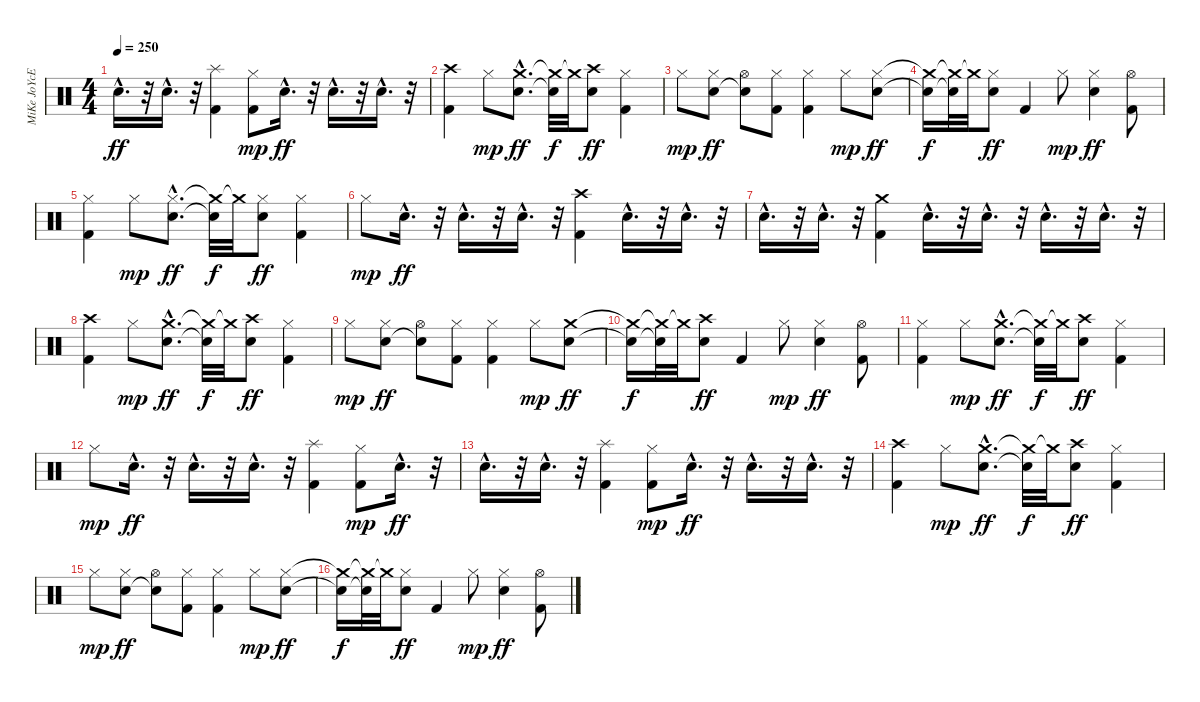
\track ("MiKe JoYcE" "MiKe JoYcE") {instrument percussion}
\staff {score}
\articulation defaults
\ts (4 4)
\tempo 250
\clef neutral
\ks c "Electric Snare (hit)"{hac}.16{d dy ff}
r.32 "Electric Snare (hit)"{hac}.16{d} r.32 ("Splash (hit)" "Kick (hit) 2").4 ("Hi-Hat (closed)" "Kick (hit) 2").8{dy mp} "Electric Snare (hit)"{hac}.16{d dy ff} r.32 "Electric Snare (hit)"{hac}.16{d} r.32 "Electric Snare (hit)"{hac}.16{d} r.32 |
("Crash high (hit)" "Kick (hit) 2").4 "Hi-Hat (closed)".8{dy mp} ("Crash medium (hit)"{hac} "Electric Snare (hit)"{hac}).8{d dy ff} ("Crash medium (hit)"{t} "Electric Snare (hit)"{t}).32{dy f} "Crash medium (hit)"{t}.32 ("Crash high (hit)" "Electric Snare (hit)").8{dy ff} ("Hi-Hat (closed)" "Kick (hit) 2").4 |
"Hi-Hat (closed)".8{dy mp} ("Hi-Hat (closed)" "Electric Snare (hit)").8{dy ff} ("Hi-Hat (open)" "Electric Snare (hit)"{t}).8 ("Hi-Hat (closed)" "Kick (hit) 2").8 ("Hi-Hat (closed)" "Kick (hit) 2").4 "Hi-Hat (closed)".8{dy mp} ("Hi-Hat (closed)" "Electric Snare (hit)").8{dy ff} |
("Crash medium (hit)"{t} "Electric Snare (hit)"{t}).16{dy f} ("Crash medium (hit)"{t} "Electric Snare (hit)"{t}).32 "Crash medium (hit)"{t}.32 ("Hi-Hat (closed)" "Electric Snare (hit)").8{dy ff} "Kick (hit) 2".4 "Hi-Hat (closed)".8{dy mp} ("Hi-Hat (closed)" "Electric Snare (hit)").4{dy ff} ("Hi-Hat (open)" "Kick (hit) 2").8 |
("Hi-Hat (closed)" "Kick (hit) 2").4 "Hi-Hat (closed)".8{dy mp} ("Hi-Hat (closed)"{hac} "Electric Snare (hit)"{hac}).8{d dy ff} ("Crash medium (hit)"{t} "Electric Snare (hit)"{t}).32{dy f} "Crash medium (hit)"{t}.32 ("Hi-Hat (closed)" "Electric Snare (hit)").8{dy ff} ("Hi-Hat (closed)" "Kick (hit) 2").4 |
"Hi-Hat (closed)".8{dy mp} "Electric Snare (hit)"{hac}.16{d dy ff} r.32 "Electric Snare (hit)"{hac}.16{d} r.32 "Electric Snare (hit)"{hac}.16{d} r.32 ("Crash high (hit)" "Kick (hit) 2").4 "Electric Snare (hit)"{hac}.16{d} r.32 "Electric Snare (hit)"{hac}.16{d} r.32 |
"Electric Snare (hit)"{hac}.16{d} r.32 "Electric Snare (hit)"{hac}.16{d} r.32 ("Crash medium (hit)" "Kick (hit) 2").4 "Electric Snare (hit)"{hac}.16{d} r.32 "Electric Snare (hit)"{hac}.16{d} r.32 "Electric Snare (hit)"{hac}.16{d} r.32 "Electric Snare (hit)"{hac}.16{d} r.32 |
("Crash high (hit)" "Kick (hit) 2").4 "Hi-Hat (closed)".8{dy mp} ("Crash medium (hit)"{hac} "Electric Snare (hit)"{hac}).8{d dy ff} ("Crash medium (hit)"{t} "Electric Snare (hit)"{t}).32{dy f} "Crash medium (hit)"{t}.32 ("Crash high (hit)" "Electric Snare (hit)").8{dy ff} ("Hi-Hat (closed)" "Kick (hit) 2").4 |
"Hi-Hat (closed)".8{dy mp} ("Hi-Hat (closed)" "Electric Snare (hit)").8{dy ff} ("Hi-Hat (open)" "Electric Snare (hit)"{t}).8 ("Hi-Hat (closed)" "Kick (hit) 2").8 ("Hi-Hat (closed)" "Kick (hit) 2").4 "Hi-Hat (closed)".8{dy mp} ("Crash medium (hit)" "Electric Snare (hit)").8{dy ff} |
("Crash medium (hit)"{t} "Electric Snare (hit)"{t}).16{dy f} ("Crash medium (hit)"{t} "Electric Snare (hit)"{t}).32 "Crash medium (hit)"{t}.32 ("Crash high (hit)" "Electric Snare (hit)").8{dy ff} "Kick (hit) 2".4 "Hi-Hat (closed)".8{dy mp} ("Hi-Hat (closed)" "Electric Snare (hit)").4{dy ff} ("Hi-Hat (open)" "Kick (hit) 2").8 |
("Hi-Hat (closed)" "Kick (hit) 2").4 "Hi-Hat (closed)".8{dy mp} ("Crash medium (hit)"{hac} "Electric Snare (hit)"{hac}).8{d dy ff} ("Crash medium (hit)"{t} "Electric Snare (hit)"{t}).32{dy f} "Crash medium (hit)"{t}.32 ("Crash high (hit)" "Electric Snare (hit)").8{dy ff} ("Hi-Hat (closed)" "Kick (hit) 2").4 |
"Hi-Hat (closed)".8{dy mp} "Electric Snare (hit)"{hac}.16{d dy ff} r.32 "Electric Snare (hit)"{hac}.16{d} r.32 "Electric Snare (hit)"{hac}.16{d} r.32 ("Splash (hit)" "Kick (hit) 2").4 ("Hi-Hat (closed)" "Kick (hit) 2").8{dy mp} "Electric Snare (hit)"{hac}.16{d dy ff} r.32 |
"Electric Snare (hit)"{hac}.16{d} r.32 "Electric Snare (hit)"{hac}.16{d} r.32 ("Splash (hit)" "Kick (hit) 2").4 ("Hi-Hat (closed)" "Kick (hit) 2").8{dy mp} "Electric Snare (hit)"{hac}.16{d dy ff} r.32 "Electric Snare (hit)"{hac}.16{d} r.32 "Electric Snare (hit)"{hac}.16{d} r.32 |
("Crash high (hit)" "Kick (hit) 2").4 "Hi-Hat (closed)".8{dy mp} ("Crash medium (hit)"{hac} "Electric Snare (hit)"{hac}).8{d dy ff} ("Crash medium (hit)"{t} "Electric Snare (hit)"{t}).32{dy f} "Crash medium (hit)"{t}.32 ("Crash high (hit)" "Electric Snare (hit)").8{dy ff} ("Hi-Hat (closed)" "Kick (hit) 2").4 |
"Hi-Hat (closed)".8{dy mp} ("Hi-Hat (closed)" "Electric Snare (hit)").8{dy ff} ("Hi-Hat (open)" "Electric Snare (hit)"{t}).8 ("Hi-Hat (closed)" "Kick (hit) 2").8 ("Hi-Hat (closed)" "Kick (hit) 2").4 "Hi-Hat (closed)".8{dy mp} ("Hi-Hat (closed)" "Electric Snare (hit)").8{dy ff} |
("Crash medium (hit)"{t} "Electric Snare (hit)"{t}).16{dy f} ("Crash medium (hit)"{t} "Electric Snare (hit)"{t}).32 "Crash medium (hit)"{t}.32 ("Hi-Hat (closed)" "Electric Snare (hit)").8{dy ff} "Kick (hit) 2".4 "Hi-Hat (closed)".8{dy mp} ("Hi-Hat (closed)" "Electric Snare (hit)").4{dy ff} ("Hi-Hat (open)" "Kick (hit) 2").8
